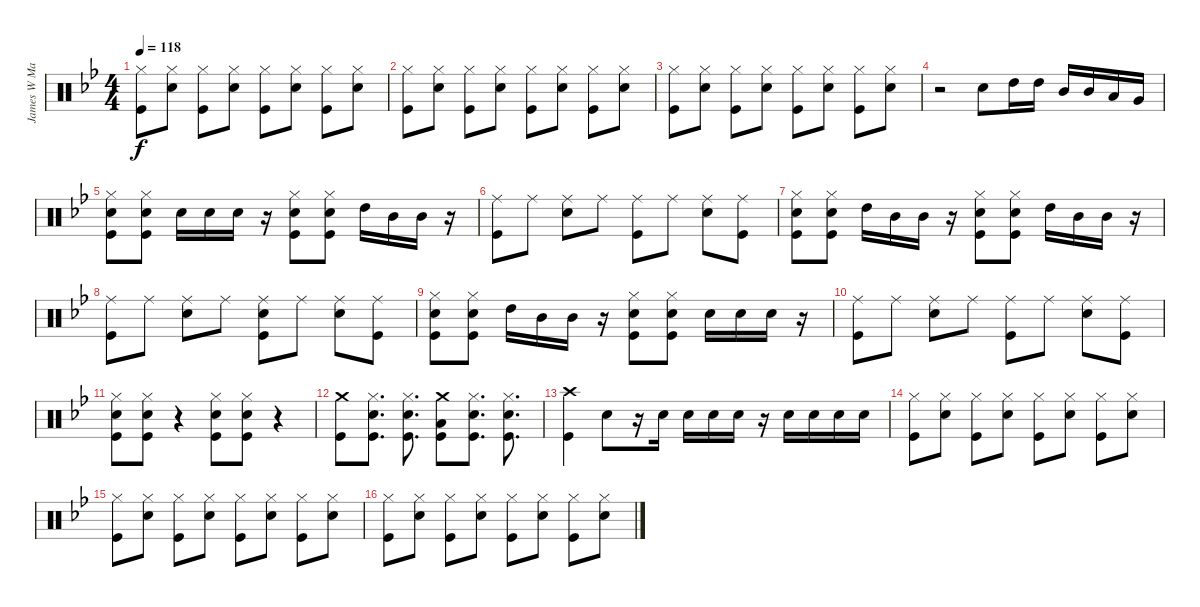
\track ("James W Marshall Drums" "James W Ma") {instrument percussion}
\staff {score}
\articulation defaults
\ts (4 4)
\tempo 118
\clef neutral
\ks gminor
("Hi-Hat (closed)" "Kick (hit)").8{dy f} ("Hi-Hat (closed)" "Snare (hit) 2").8 ("Hi-Hat (closed)" "Kick (hit)").8 ("Hi-Hat (closed)" "Snare (hit) 2").8 ("Hi-Hat (closed)" "Kick (hit)").8 ("Hi-Hat (closed)" "Snare (hit) 2").8 ("Hi-Hat (closed)" "Kick (hit)").8 ("Hi-Hat (closed)" "Snare (hit) 2").8 |
("Hi-Hat (closed)" "Kick (hit)").8 ("Hi-Hat (closed)" "Snare (hit) 2").8 ("Hi-Hat (closed)" "Kick (hit)").8 ("Hi-Hat (closed)" "Snare (hit) 2").8 ("Hi-Hat (closed)" "Kick (hit)").8 ("Hi-Hat (closed)" "Snare (hit) 2").8 ("Hi-Hat (closed)" "Kick (hit)").8 ("Hi-Hat (closed)" "Snare (hit) 2").8 |
("Hi-Hat (closed)" "Kick (hit)").8 ("Hi-Hat (closed)" "Snare (hit) 2").8 ("Hi-Hat (closed)" "Kick (hit)").8 ("Hi-Hat (closed)" "Snare (hit) 2").8 ("Hi-Hat (closed)" "Kick (hit)").8 ("Hi-Hat (closed)" "Snare (hit) 2").8 ("Hi-Hat (closed)" "Kick (hit)").8 ("Hi-Hat (closed)" "Snare (hit) 2").8 |
r.2 "Snare (hit) 2".8 "High Tom (hit)".16 "High Tom (hit)".16 "Mid Tom (hit)".16 "Mid Tom (hit)".16 "Low Tom (hit)".16 "Very Low Tom (hit)".16 |
("Hi-Hat (closed)" "Snare (hit) 2" "Kick (hit)").8 ("Hi-Hat (closed)" "Snare (hit) 2" "Kick (hit)").8 "Snare (hit) 2".16 "Snare (hit) 2".16 "Snare (hit) 2".16 r.16 ("Hi-Hat (closed)" "Snare (hit) 2" "Kick (hit)").8 ("Hi-Hat (closed)" "Snare (hit) 2" "Kick (hit)").8 "High Tom (hit)".16 "Mid Tom (hit)".16 "Mid Tom (hit)".16 r.16 |
("Ride (middle)" "Kick (hit)").8 "Ride (middle)".8 ("Ride (middle)" "Snare (hit) 2").8 "Ride (middle)".8 ("Ride (middle)" "Kick (hit)").8 "Ride (middle)".8 ("Ride (middle)" "Snare (hit) 2").8 ("Ride (middle)" "Kick (hit)").8 |
("Hi-Hat (closed)" "Snare (hit) 2" "Kick (hit)").8 ("Hi-Hat (closed)" "Snare (hit) 2" "Kick (hit)").8 "High Tom (hit)".16 "Mid Tom (hit)".16 "Mid Tom (hit)".16 r.16 ("Hi-Hat (closed)" "Snare (hit) 2" "Kick (hit)").8 ("Hi-Hat (closed)" "Snare (hit) 2" "Kick (hit)").8 "High Tom (hit)".16 "Mid Tom (hit)".16 "Mid Tom (hit)".16 r.16 |
("Ride (middle)" "Kick (hit)").8 "Ride (middle)".8 ("Ride (middle)" "Snare (hit) 2").8 "Ride (middle)".8 ("Ride (middle)" "Snare (hit) 2" "Kick (hit)").8 "Ride (middle)".8 ("Ride (middle)" "Snare (hit) 2").8 ("Ride (middle)" "Kick (hit)").8 |
("Hi-Hat (closed)" "Snare (hit) 2" "Kick (hit)").8 ("Hi-Hat (closed)" "Snare (hit) 2" "Kick (hit)").8 "High Tom (hit)".16 "Mid Tom (hit)".16 "Mid Tom (hit)".16 r.16 ("Hi-Hat (closed)" "Snare (hit) 2" "Kick (hit)").8 ("Hi-Hat (closed)" "Snare (hit) 2" "Kick (hit)").8 "Snare (hit) 2".16 "Snare (hit) 2".16 "Snare (hit) 2".16 r.16 |
("Ride (middle)" "Kick (hit)").8 "Ride (middle)".8 ("Ride (middle)" "Snare (hit) 2").8 "Ride (middle)".8 ("Ride (middle)" "Kick (hit)").8 "Ride (middle)".8 ("Ride (middle)" "Snare (hit) 2").8 ("Ride (middle)" "Kick (hit)").8 |
("Hi-Hat (closed)" "Snare (hit) 2" "Kick (hit)").8 ("Hi-Hat (closed)" "Snare (hit) 2" "Kick (hit)").8 r.4 ("Hi-Hat (closed)" "Snare (hit) 2" "Kick (hit)").8 ("Hi-Hat (closed)" "Snare (hit) 2" "Kick (hit)").8 r.4 |
("Crash medium (hit)" "Kick (hit)").8 ("Hi-Hat (closed)" "Snare (hit) 2" "Kick (hit)").8{d} ("Hi-Hat (closed)" "Snare (hit) 2" "Kick (hit)").8{d} ("Crash medium (hit)" "Low Floor Tom (hit)" "Kick (hit)").8 ("Hi-Hat (closed)" "Snare (hit) 2" "Kick (hit)").8{d} ("Hi-Hat (closed)" "Snare (hit) 2" "Kick (hit)").8{d} |
("Crash high (hit)" "Kick (hit)").4 "Snare (hit) 2".8 r.16 "Snare (hit) 2".16 "Snare (hit) 2".16 "Snare (hit) 2".16 "Snare (hit) 2".16 r.16 "Snare (hit) 2".16 "Snare (hit) 2".16 "Snare (hit) 2".16 "Snare (hit) 2".16 |
("Hi-Hat (closed)" "Kick (hit)").8 ("Hi-Hat (closed)" "Snare (hit) 2").8 ("Hi-Hat (closed)" "Kick (hit)").8 ("Hi-Hat (closed)" "Snare (hit) 2").8 ("Hi-Hat (closed)" "Kick (hit)").8 ("Hi-Hat (closed)" "Snare (hit) 2").8 ("Hi-Hat (closed)" "Kick (hit)").8 ("Hi-Hat (closed)" "Snare (hit) 2").8 |
("Hi-Hat (closed)" "Kick (hit)").8 ("Hi-Hat (closed)" "Snare (hit) 2").8 ("Hi-Hat (closed)" "Kick (hit)").8 ("Hi-Hat (closed)" "Snare (hit) 2").8 ("Hi-Hat (closed)" "Kick (hit)").8 ("Hi-Hat (closed)" "Snare (hit) 2").8 ("Hi-Hat (closed)" "Kick (hit)").8 ("Hi-Hat (closed)" "Snare (hit) 2").8 |
("Hi-Hat (closed)" "Kick (hit)").8 ("Hi-Hat (closed)" "Snare (hit) 2").8 ("Hi-Hat (closed)" "Kick (hit)").8 ("Hi-Hat (closed)" "Snare (hit) 2").8 ("Hi-Hat (closed)" "Kick (hit)").8 ("Hi-Hat (closed)" "Snare (hit) 2").8 ("Hi-Hat (closed)" "Kick (hit)").8 ("Hi-Hat (closed)" "Snare (hit) 2").8
